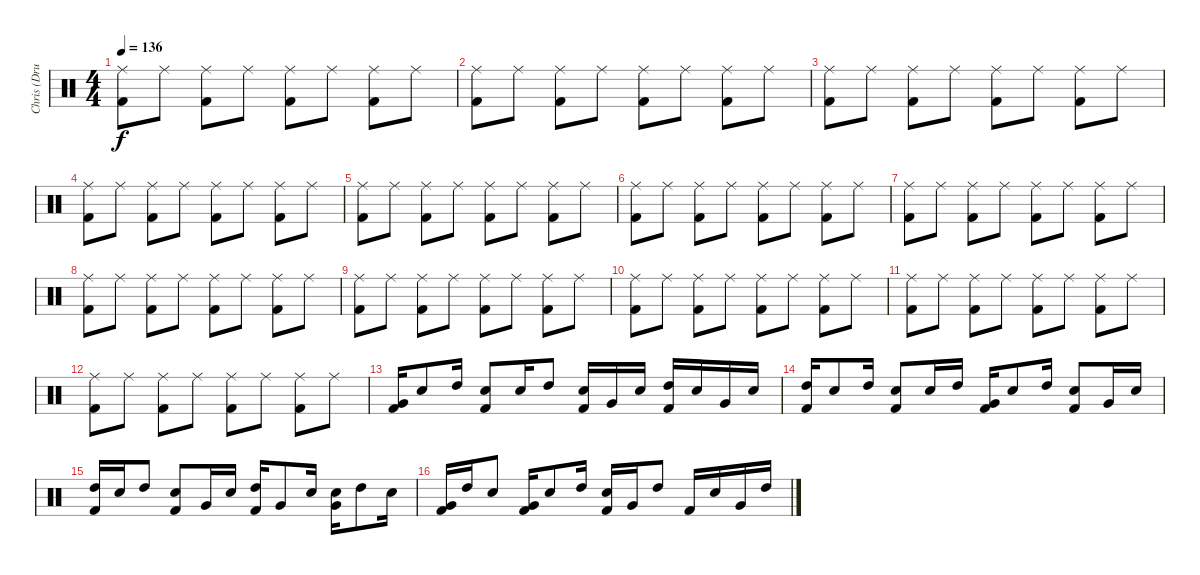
\track ("Chris (Drums)" "Chris (Dru") {instrument percussion}
\staff {score}
\articulation defaults
\ts (4 4)
\tempo 136
\clef neutral
\ks c
("Ride (middle)" "Kick (hit) 2").8{dy f} "Ride (middle)".8 ("Ride (middle)" "Kick (hit) 2").8 "Ride (middle)".8 ("Ride (middle)" "Kick (hit) 2").8 "Ride (middle)".8 ("Ride (middle)" "Kick (hit) 2").8 "Ride (middle)".8 |
("Ride (middle)" "Kick (hit) 2").8 "Ride (middle)".8 ("Ride (middle)" "Kick (hit) 2").8 "Ride (middle)".8 ("Ride (middle)" "Kick (hit) 2").8 "Ride (middle)".8 ("Ride (middle)" "Kick (hit) 2").8 "Ride (middle)".8 |
("Ride (middle)" "Kick (hit) 2").8 "Ride (middle)".8 ("Ride (middle)" "Kick (hit) 2").8 "Ride (middle)".8 ("Ride (middle)" "Kick (hit) 2").8 "Ride (middle)".8 ("Ride (middle)" "Kick (hit) 2").8 "Ride (middle)".8 |
("Ride (middle)" "Kick (hit) 2").8 "Ride (middle)".8 ("Ride (middle)" "Kick (hit) 2").8 "Ride (middle)".8 ("Ride (middle)" "Kick (hit) 2").8 "Ride (middle)".8 ("Ride (middle)" "Kick (hit) 2").8 "Ride (middle)".8 |
("Ride (middle)" "Kick (hit) 2").8 "Ride (middle)".8 ("Ride (middle)" "Kick (hit) 2").8 "Ride (middle)".8 ("Ride (middle)" "Kick (hit) 2").8 "Ride (middle)".8 ("Ride (middle)" "Kick (hit) 2").8 "Ride (middle)".8 |
("Ride (middle)" "Kick (hit) 2").8 "Ride (middle)".8 ("Ride (middle)" "Kick (hit) 2").8 "Ride (middle)".8 ("Ride (middle)" "Kick (hit) 2").8 "Ride (middle)".8 ("Ride (middle)" "Kick (hit) 2").8 "Ride (middle)".8 |
("Ride (middle)" "Kick (hit) 2").8 "Ride (middle)".8 ("Ride (middle)" "Kick (hit) 2").8 "Ride (middle)".8 ("Ride (middle)" "Kick (hit) 2").8 "Ride (middle)".8 ("Ride (middle)" "Kick (hit) 2").8 "Ride (middle)".8 |
("Ride (middle)" "Kick (hit) 2").8 "Ride (middle)".8 ("Ride (middle)" "Kick (hit) 2").8 "Ride (middle)".8 ("Ride (middle)" "Kick (hit) 2").8 "Ride (middle)".8 ("Ride (middle)" "Kick (hit) 2").8 "Ride (middle)".8 |
("Ride (middle)" "Kick (hit) 2").8 "Ride (middle)".8 ("Ride (middle)" "Kick (hit) 2").8 "Ride (middle)".8 ("Ride (middle)" "Kick (hit) 2").8 "Ride (middle)".8 ("Ride (middle)" "Kick (hit) 2").8 "Ride (middle)".8 |
("Ride (middle)" "Kick (hit) 2").8 "Ride (middle)".8 ("Ride (middle)" "Kick (hit) 2").8 "Ride (middle)".8 ("Ride (middle)" "Kick (hit) 2").8 "Ride (middle)".8 ("Ride (middle)" "Kick (hit) 2").8 "Ride (middle)".8 |
("Ride (middle)" "Kick (hit) 2").8 "Ride (middle)".8 ("Ride (middle)" "Kick (hit) 2").8 "Ride (middle)".8 ("Ride (middle)" "Kick (hit) 2").8 "Ride (middle)".8 ("Ride (middle)" "Kick (hit) 2").8 "Ride (middle)".8 |
("Ride (middle)" "Kick (hit) 2").8 "Ride (middle)".8 ("Ride (middle)" "Kick (hit) 2").8 "Ride (middle)".8 ("Ride (middle)" "Kick (hit) 2").8 "Ride (middle)".8 ("Ride (middle)" "Kick (hit) 2").8 "Ride (middle)".8 |
("Very Low Tom (hit)" "Kick (hit) 2").16 "Snare (hit) 2".8 "High Tom (hit)".16 ("Snare (hit) 2" "Kick (hit) 2").8 "Snare (hit) 2".16 "High Tom (hit)".8 ("Snare (hit) 2" "Kick (hit) 2").16 "Very Low Tom (hit)".16 "Snare (hit) 2".16 ("High Tom (hit)" "Kick (hit) 2").16 "Snare (hit) 2".16 "Very Low Tom (hit)".16 "Snare (hit) 2".16 |
("High Tom (hit)" "Kick (hit) 2").16 "Snare (hit) 2".8 "High Tom (hit)".16 ("Snare (hit) 2" "Kick (hit) 2").8 "Snare (hit) 2".16 "High Tom (hit)".16 ("Very Low Tom (hit)" "Kick (hit) 2").16 "Snare (hit) 2".8 "High Tom (hit)".16 ("Snare (hit) 2" "Kick (hit) 2").8 "Very Low Tom (hit)".16 "Snare (hit) 2".16 |
("High Tom (hit)" "Kick (hit) 2").16 "Snare (hit) 2".16 "High Tom (hit)".8 ("Snare (hit) 2" "Kick (hit) 2").8 "Very Low Tom (hit)".16 "Snare (hit) 2".16 ("High Tom (hit)" "Kick (hit) 2").16 "Very Low Tom (hit)".8 "Snare (hit) 2".16 ("Very Low Tom (hit)" "Snare (hit) 2").16 "High Tom (hit)".8 "Snare (hit) 2".16 |
("Very Low Tom (hit)" "Kick (hit) 2").16 "High Tom (hit)".16 "Snare (hit) 2".8 ("Very Low Tom (hit)" "Kick (hit) 2").16 "Snare (hit) 2".8 "High Tom (hit)".16 ("Snare (hit) 2" "Kick (hit) 2").16 "Very Low Tom (hit)".16 "High Tom (hit)".8 "Kick (hit) 2".16 "Snare (hit) 2".16 "Very Low Tom (hit)".16 "High Tom (hit)".16
